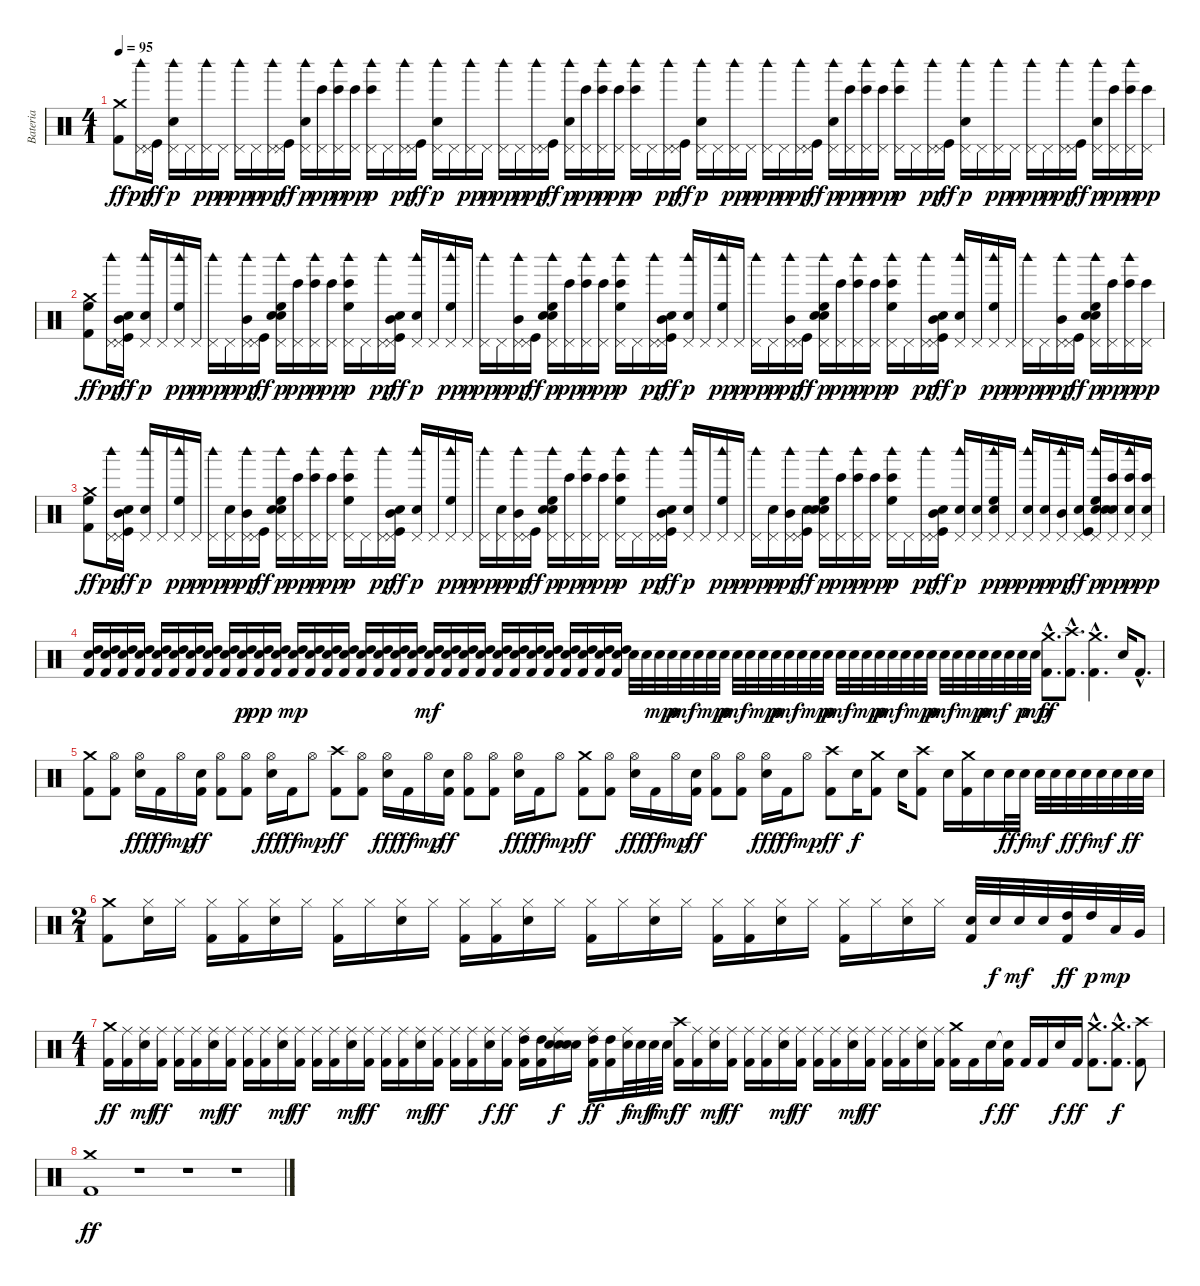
\track ("Bateria" "Bateria") {instrument percussion}
\staff {score}
\articulation defaults
\ts (4 1)
\tempo 95
\clef neutral
\ks c
("Crash medium (hit)" "Kick (hit) 2").8{dy ff} ("Pedal Hi-Hat (hit)" "Woodblock high (hit)").16{dy pp} ("Pedal Hi-Hat (hit)" "Kick (hit)").16{dy ff} ("Pedal Hi-Hat (hit)" "Woodblock high (hit)" "Hand Clap (hit)").16{dy p} "Pedal Hi-Hat (hit)".16 ("Pedal Hi-Hat (hit)" "Woodblock high (hit)").16{dy pp} "Pedal Hi-Hat (hit)".16{dy p} ("Pedal Hi-Hat (hit)" "Woodblock high (hit)").16{dy pp} "Pedal Hi-Hat (hit)".16{dy p} ("Pedal Hi-Hat (hit)" "Woodblock high (hit)").16{dy pp} ("Pedal Hi-Hat (hit)" "Kick (hit)").16{dy ff} ("Pedal Hi-Hat (hit)" "Woodblock high (hit)" "Hand Clap (hit)").16{dy p} ("Pedal Hi-Hat (hit)" "Bongo High (hit)").16{dy pp} ("Pedal Hi-Hat (hit)" "Woodblock high (hit)" "Bongo High (hit)").16{dy p} ("Pedal Hi-Hat (hit)" "Bongo High (hit)").16{dy pp} ("Pedal Hi-Hat (hit)" "Woodblock high (hit)" "Bongo High (hit)").16{dy p} "Pedal Hi-Hat (hit)".16 ("Pedal Hi-Hat (hit)" "Woodblock high (hit)").16{dy pp} ("Pedal Hi-Hat (hit)" "Kick (hit)").16{dy ff} ("Pedal Hi-Hat (hit)" "Woodblock high (hit)" "Hand Clap (hit)").16{dy p} "Pedal Hi-Hat (hit)".16 ("Pedal Hi-Hat (hit)" "Woodblock high (hit)").16{dy pp} "Pedal Hi-Hat (hit)".16{dy p} ("Pedal Hi-Hat (hit)" "Woodblock high (hit)").16{dy pp} "Pedal Hi-Hat (hit)".16{dy p} ("Pedal Hi-Hat (hit)" "Woodblock high (hit)").16{dy pp} ("Pedal Hi-Hat (hit)" "Kick (hit)").16{dy ff} ("Pedal Hi-Hat (hit)" "Woodblock high (hit)" "Hand Clap (hit)").16{dy p} ("Pedal Hi-Hat (hit)" "Bongo High (hit)").16{dy pp} ("Pedal Hi-Hat (hit)" "Woodblock high (hit)" "Bongo High (hit)").16{dy p} ("Pedal Hi-Hat (hit)" "Bongo High (hit)").16{dy pp} ("Pedal Hi-Hat (hit)" "Woodblock high (hit)" "Bongo High (hit)").16{dy p} "Pedal Hi-Hat (hit)".16 ("Pedal Hi-Hat (hit)" "Woodblock high (hit)").16{dy pp} ("Pedal Hi-Hat (hit)" "Kick (hit)").16{dy ff} ("Pedal Hi-Hat (hit)" "Woodblock high (hit)" "Hand Clap (hit)").16{dy p} "Pedal Hi-Hat (hit)".16 ("Pedal Hi-Hat (hit)" "Woodblock high (hit)").16{dy pp} "Pedal Hi-Hat (hit)".16{dy p} ("Pedal Hi-Hat (hit)" "Woodblock high (hit)").16{dy pp} "Pedal Hi-Hat (hit)".16{dy p} ("Pedal Hi-Hat (hit)" "Woodblock high (hit)").16{dy pp} ("Pedal Hi-Hat (hit)" "Kick (hit)").16{dy ff} ("Pedal Hi-Hat (hit)" "Woodblock high (hit)" "Hand Clap (hit)").16{dy p} ("Pedal Hi-Hat (hit)" "Bongo High (hit)").16{dy pp} ("Pedal Hi-Hat (hit)" "Woodblock high (hit)" "Bongo High (hit)").16{dy p} ("Pedal Hi-Hat (hit)" "Bongo High (hit)").16{dy pp} ("Pedal Hi-Hat (hit)" "Woodblock high (hit)" "Bongo High (hit)").16{dy p} "Pedal Hi-Hat (hit)".16 ("Pedal Hi-Hat (hit)" "Woodblock high (hit)").16{dy pp} ("Pedal Hi-Hat (hit)" "Kick (hit)").16{dy ff} ("Pedal Hi-Hat (hit)" "Woodblock high (hit)" "Hand Clap (hit)").16{dy p} "Pedal Hi-Hat (hit)".16 ("Pedal Hi-Hat (hit)" "Woodblock high (hit)").16{dy pp} "Pedal Hi-Hat (hit)".16{dy p} ("Pedal Hi-Hat (hit)" "Woodblock high (hit)").16{dy pp} "Pedal Hi-Hat (hit)".16{dy p} ("Pedal Hi-Hat (hit)" "Woodblock high (hit)").16{dy pp} ("Pedal Hi-Hat (hit)" "Kick (hit)").16{dy ff} ("Pedal Hi-Hat (hit)" "Woodblock high (hit)" "Hand Clap (hit)").16{dy p} ("Pedal Hi-Hat (hit)" "Bongo High (hit)").16{dy pp} ("Pedal Hi-Hat (hit)" "Woodblock high (hit)" "Bongo High (hit)").16{dy p} ("Pedal Hi-Hat (hit)" "Bongo High (hit)").16{dy pp} |
("Crash medium (hit)" "High Floor Tom (hit)" "Kick (hit) 2").8{dy ff} ("Pedal Hi-Hat (hit)" "Woodblock high (hit)").16{dy pp} ("Snare (hit) 2" "Pedal Hi-Hat (hit)" "Mid Tom (hit)" "Kick (hit)").16{dy ff} ("Pedal Hi-Hat (hit)" "Woodblock high (hit)" "Hand Clap (hit)").16{dy p} "Pedal Hi-Hat (hit)".16 ("Pedal Hi-Hat (hit)" "High Floor Tom (hit)" "Woodblock high (hit)").16{dy pp} "Pedal Hi-Hat (hit)".16{dy p} ("Pedal Hi-Hat (hit)" "Woodblock high (hit)").16{dy pp} "Pedal Hi-Hat (hit)".16{dy p} ("Pedal Hi-Hat (hit)" "Mid Tom (hit)" "Woodblock high (hit)").16{dy pp} ("Pedal Hi-Hat (hit)" "Kick (hit)").16{dy ff} ("Snare (hit) 2" "Pedal Hi-Hat (hit)" "High Floor Tom (hit)" "Woodblock high (hit)" "Hand Clap (hit)").16{dy p} ("Pedal Hi-Hat (hit)" "Bongo High (hit)").16{dy pp} ("Pedal Hi-Hat (hit)" "Woodblock high (hit)" "Bongo High (hit)").16{dy p} ("Pedal Hi-Hat (hit)" "Bongo High (hit)").16{dy pp} ("Pedal Hi-Hat (hit)" "High Floor Tom (hit)" "Woodblock high (hit)" "Bongo High (hit)").16{dy p} "Pedal Hi-Hat (hit)".16 ("Pedal Hi-Hat (hit)" "Woodblock high (hit)").16{dy pp} ("Snare (hit) 2" "Pedal Hi-Hat (hit)" "Mid Tom (hit)" "Kick (hit)").16{dy ff} ("Pedal Hi-Hat (hit)" "Woodblock high (hit)" "Hand Clap (hit)").16{dy p} "Pedal Hi-Hat (hit)".16 ("Pedal Hi-Hat (hit)" "High Floor Tom (hit)" "Woodblock high (hit)").16{dy pp} "Pedal Hi-Hat (hit)".16{dy p} ("Pedal Hi-Hat (hit)" "Woodblock high (hit)").16{dy pp} "Pedal Hi-Hat (hit)".16{dy p} ("Pedal Hi-Hat (hit)" "Mid Tom (hit)" "Woodblock high (hit)").16{dy pp} ("Pedal Hi-Hat (hit)" "Kick (hit)").16{dy ff} ("Snare (hit) 2" "Pedal Hi-Hat (hit)" "High Floor Tom (hit)" "Woodblock high (hit)" "Hand Clap (hit)").16{dy p} ("Pedal Hi-Hat (hit)" "Bongo High (hit)").16{dy pp} ("Pedal Hi-Hat (hit)" "Woodblock high (hit)" "Bongo High (hit)").16{dy p} ("Pedal Hi-Hat (hit)" "Bongo High (hit)").16{dy pp} ("Pedal Hi-Hat (hit)" "High Floor Tom (hit)" "Woodblock high (hit)" "Bongo High (hit)").16{dy p} "Pedal Hi-Hat (hit)".16 ("Pedal Hi-Hat (hit)" "Woodblock high (hit)").16{dy pp} ("Snare (hit) 2" "Pedal Hi-Hat (hit)" "Mid Tom (hit)" "Kick (hit)").16{dy ff} ("Pedal Hi-Hat (hit)" "Woodblock high (hit)" "Hand Clap (hit)").16{dy p} "Pedal Hi-Hat (hit)".16 ("Pedal Hi-Hat (hit)" "High Floor Tom (hit)" "Woodblock high (hit)").16{dy pp} "Pedal Hi-Hat (hit)".16{dy p} ("Pedal Hi-Hat (hit)" "Woodblock high (hit)").16{dy pp} "Pedal Hi-Hat (hit)".16{dy p} ("Pedal Hi-Hat (hit)" "Mid Tom (hit)" "Woodblock high (hit)").16{dy pp} ("Pedal Hi-Hat (hit)" "Kick (hit)").16{dy ff} ("Snare (hit) 2" "Pedal Hi-Hat (hit)" "High Floor Tom (hit)" "Woodblock high (hit)" "Hand Clap (hit)").16{dy p} ("Pedal Hi-Hat (hit)" "Bongo High (hit)").16{dy pp} ("Pedal Hi-Hat (hit)" "Woodblock high (hit)" "Bongo High (hit)").16{dy p} ("Pedal Hi-Hat (hit)" "Bongo High (hit)").16{dy pp} ("Pedal Hi-Hat (hit)" "High Floor Tom (hit)" "Woodblock high (hit)" "Bongo High (hit)").16{dy p} "Pedal Hi-Hat (hit)".16 ("Pedal Hi-Hat (hit)" "Woodblock high (hit)").16{dy pp} ("Snare (hit) 2" "Pedal Hi-Hat (hit)" "Mid Tom (hit)" "Kick (hit)").16{dy ff} ("Pedal Hi-Hat (hit)" "Woodblock high (hit)" "Hand Clap (hit)").16{dy p} "Pedal Hi-Hat (hit)".16 ("Pedal Hi-Hat (hit)" "High Floor Tom (hit)" "Woodblock high (hit)").16{dy pp} "Pedal Hi-Hat (hit)".16{dy p} ("Pedal Hi-Hat (hit)" "Woodblock high (hit)").16{dy pp} "Pedal Hi-Hat (hit)".16{dy p} ("Pedal Hi-Hat (hit)" "Mid Tom (hit)" "Woodblock high (hit)").16{dy pp} ("Pedal Hi-Hat (hit)" "Kick (hit)").16{dy ff} ("Snare (hit) 2" "Pedal Hi-Hat (hit)" "High Floor Tom (hit)" "Woodblock high (hit)" "Hand Clap (hit)").16{dy p} ("Pedal Hi-Hat (hit)" "Bongo High (hit)").16{dy pp} ("Pedal Hi-Hat (hit)" "Woodblock high (hit)" "Bongo High (hit)").16{dy p} ("Pedal Hi-Hat (hit)" "Bongo High (hit)").16{dy pp} |
("Crash medium (hit)" "High Floor Tom (hit)" "Kick (hit) 2").8{dy ff} ("Pedal Hi-Hat (hit)" "Woodblock high (hit)").16{dy pp} ("Snare (hit) 2" "Pedal Hi-Hat (hit)" "Mid Tom (hit)" "Kick (hit)").16{dy ff} ("Pedal Hi-Hat (hit)" "Woodblock high (hit)" "Hand Clap (hit)").16{dy p} "Pedal Hi-Hat (hit)".16 ("Pedal Hi-Hat (hit)" "High Floor Tom (hit)" "Woodblock high (hit)").16{dy pp} "Pedal Hi-Hat (hit)".16{dy p} ("Pedal Hi-Hat (hit)" "Woodblock high (hit)").16{dy pp} ("Snare (hit) 2" "Pedal Hi-Hat (hit)").16{dy p} ("Pedal Hi-Hat (hit)" "Mid Tom (hit)" "Woodblock high (hit)").16{dy pp} ("Pedal Hi-Hat (hit)" "Kick (hit)").16{dy ff} ("Snare (hit) 2" "Pedal Hi-Hat (hit)" "High Floor Tom (hit)" "Woodblock high (hit)" "Hand Clap (hit)").16{dy p} ("Pedal Hi-Hat (hit)" "Bongo High (hit)").16{dy pp} ("Pedal Hi-Hat (hit)" "Woodblock high (hit)" "Bongo High (hit)").16{dy p} ("Pedal Hi-Hat (hit)" "Bongo High (hit)").16{dy pp} ("Pedal Hi-Hat (hit)" "High Floor Tom (hit)" "Woodblock high (hit)" "Bongo High (hit)").16{dy p} "Pedal Hi-Hat (hit)".16 ("Pedal Hi-Hat (hit)" "Woodblock high (hit)").16{dy pp} ("Snare (hit) 2" "Pedal Hi-Hat (hit)" "Mid Tom (hit)" "Kick (hit)").16{dy ff} ("Pedal Hi-Hat (hit)" "Woodblock high (hit)" "Hand Clap (hit)").16{dy p} "Pedal Hi-Hat (hit)".16 ("Pedal Hi-Hat (hit)" "High Floor Tom (hit)" "Woodblock high (hit)").16{dy pp} "Pedal Hi-Hat (hit)".16{dy p} ("Pedal Hi-Hat (hit)" "Woodblock high (hit)").16{dy pp} ("Snare (hit) 2" "Pedal Hi-Hat (hit)").16{dy p} ("Pedal Hi-Hat (hit)" "Mid Tom (hit)" "Woodblock high (hit)").16{dy pp} ("Pedal Hi-Hat (hit)" "Kick (hit)").16{dy ff} ("Snare (hit) 2" "Pedal Hi-Hat (hit)" "High Floor Tom (hit)" "Woodblock high (hit)" "Hand Clap (hit)").16{dy p} ("Pedal Hi-Hat (hit)" "Bongo High (hit)").16{dy pp} ("Pedal Hi-Hat (hit)" "Woodblock high (hit)" "Bongo High (hit)").16{dy p} ("Pedal Hi-Hat (hit)" "Bongo High (hit)").16{dy pp} ("Pedal Hi-Hat (hit)" "High Floor Tom (hit)" "Woodblock high (hit)" "Bongo High (hit)").16{dy p} "Pedal Hi-Hat (hit)".16 ("Pedal Hi-Hat (hit)" "Woodblock high (hit)").16{dy pp} ("Snare (hit) 2" "Pedal Hi-Hat (hit)" "Mid Tom (hit)" "Kick (hit)").16{dy ff} ("Pedal Hi-Hat (hit)" "Woodblock high (hit)" "Hand Clap (hit)").16{dy p} "Pedal Hi-Hat (hit)".16 ("Pedal Hi-Hat (hit)" "High Floor Tom (hit)" "Woodblock high (hit)").16{dy pp} "Pedal Hi-Hat (hit)".16{dy p} ("Pedal Hi-Hat (hit)" "Woodblock high (hit)").16{dy pp} ("Snare (hit) 2" "Pedal Hi-Hat (hit)").16{dy p} ("Pedal Hi-Hat (hit)" "Mid Tom (hit)" "Woodblock high (hit)").16{dy pp} ("Snare (hit) 2" "Pedal Hi-Hat (hit)" "Kick (hit)").16{dy ff} ("Snare (hit) 2" "Pedal Hi-Hat (hit)" "High Floor Tom (hit)" "Woodblock high (hit)" "Hand Clap (hit)").16{dy p} ("Pedal Hi-Hat (hit)" "Bongo High (hit)").16{dy pp} ("Pedal Hi-Hat (hit)" "Woodblock high (hit)" "Bongo High (hit)").16{dy p} ("Pedal Hi-Hat (hit)" "Bongo High (hit)").16{dy pp} ("Pedal Hi-Hat (hit)" "High Floor Tom (hit)" "Woodblock high (hit)" "Bongo High (hit)").16{dy p} "Pedal Hi-Hat (hit)".16 ("Pedal Hi-Hat (hit)" "Woodblock high (hit)").16{dy pp} ("Snare (hit) 2" "Pedal Hi-Hat (hit)" "Mid Tom (hit)" "Kick (hit)").16{dy ff} ("Pedal Hi-Hat (hit)" "Woodblock high (hit)" "Hand Clap (hit)").16{dy p} ("Snare (hit) 2" "Pedal Hi-Hat (hit)").16 ("Snare (hit) 2" "Pedal Hi-Hat (hit)" "High Floor Tom (hit)" "Woodblock high (hit)").16{dy pp} "Pedal Hi-Hat (hit)".16{dy p} ("Snare (hit) 2" "Pedal Hi-Hat (hit)" "Woodblock high (hit)").16{dy pp} ("Snare (hit) 2" "Pedal Hi-Hat (hit)").16{dy p} ("Pedal Hi-Hat (hit)" "Mid Tom (hit)" "Woodblock high (hit)").16{dy pp} ("Snare (hit) 2" "Pedal Hi-Hat (hit)" "Kick (hit)").16{dy ff} ("Snare (hit) 2" "Pedal Hi-Hat (hit)" "High Floor Tom (hit)" "Woodblock high (hit)" "Hand Clap (hit)").16{dy p} ("Snare (hit) 2" "Pedal Hi-Hat (hit)" "Bongo High (hit)").16{dy pp} ("Snare (hit) 2" "Pedal Hi-Hat (hit)" "Woodblock high (hit)" "Bongo High (hit)").16{dy p} ("Snare (hit) 2" "Pedal Hi-Hat (hit)" "Bongo High (hit)").16{dy pp} |
("High Tom (hit)" "Electric Snare (hit)" "Kick (hit) 2").16 ("High Tom (hit)" "Electric Snare (hit)" "Kick (hit) 2").16 ("High Tom (hit)" "Electric Snare (hit)" "Kick (hit) 2").16 ("High Tom (hit)" "Electric Snare (hit)" "Kick (hit) 2").16 ("High Tom (hit)" "Electric Snare (hit)" "Kick (hit) 2").16 ("High Tom (hit)" "Electric Snare (hit)" "Kick (hit) 2").16 ("High Tom (hit)" "Electric Snare (hit)" "Kick (hit) 2").16 ("High Tom (hit)" "Electric Snare (hit)" "Kick (hit) 2").16 ("High Tom (hit)" "Electric Snare (hit)" "Kick (hit) 2").16 ("High Tom (hit)" "Electric Snare (hit)" "Kick (hit) 2").16{dy p} ("High Tom (hit)" "Electric Snare (hit)" "Kick (hit) 2").16{dy pp} ("High Tom (hit)" "Electric Snare (hit)" "Kick (hit) 2").16 ("High Tom (hit)" "Electric Snare (hit)" "Kick (hit) 2").16{dy mp} ("High Tom (hit)" "Electric Snare (hit)" "Kick (hit) 2").16 ("High Tom (hit)" "Electric Snare (hit)" "Kick (hit) 2").16 ("High Tom (hit)" "Electric Snare (hit)" "Kick (hit) 2").16 ("High Tom (hit)" "Electric Snare (hit)" "Kick (hit) 2").16 ("High Tom (hit)" "Electric Snare (hit)" "Kick (hit) 2").16 ("High Tom (hit)" "Electric Snare (hit)" "Kick (hit) 2").16 ("High Tom (hit)" "Electric Snare (hit)" "Kick (hit) 2").16 ("High Tom (hit)" "Electric Snare (hit)" "Kick (hit) 2").16{dy mf} ("High Tom (hit)" "Electric Snare (hit)" "Kick (hit) 2").16 ("High Tom (hit)" "Electric Snare (hit)" "Kick (hit) 2").16 ("High Tom (hit)" "Electric Snare (hit)" "Kick (hit) 2").16 ("High Tom (hit)" "Electric Snare (hit)" "Kick (hit) 2").16 ("High Tom (hit)" "Electric Snare (hit)" "Kick (hit) 2").16 ("High Tom (hit)" "Electric Snare (hit)" "Kick (hit) 2").16 ("High Tom (hit)" "Electric Snare (hit)" "Kick (hit) 2").16 ("High Tom (hit)" "Electric Snare (hit)" "Kick (hit) 2").16 ("High Tom (hit)" "Electric Snare (hit)" "Kick (hit) 2").16 ("High Tom (hit)" "Electric Snare (hit)" "Kick (hit) 2").16 ("High Tom (hit)" "Electric Snare (hit)" "Kick (hit) 2").16 "Electric Snare (hit)".32 "Electric Snare (hit)".32 "Electric Snare (hit)".32{dy mp} "Electric Snare (hit)".32{dy p} "Electric Snare (hit)".32{dy mf} "Electric Snare (hit)".32 "Electric Snare (hit)".32{dy mp} "Electric Snare (hit)".32{dy p} "Electric Snare (hit)".32{dy mf} "Electric Snare (hit)".32 "Electric Snare (hit)".32{dy mp} "Electric Snare (hit)".32{dy p} "Electric Snare (hit)".32{dy mf} "Electric Snare (hit)".32 "Electric Snare (hit)".32{dy mp} "Electric Snare (hit)".32{dy p} "Electric Snare (hit)".32{dy mf} "Electric Snare (hit)".32 "Electric Snare (hit)".32{dy mp} "Electric Snare (hit)".32{dy p} "Electric Snare (hit)".32{dy mf} "Electric Snare (hit)".32 "Electric Snare (hit)".32{dy mp} "Electric Snare (hit)".32{dy p} "Electric Snare (hit)".32{dy mf} "Electric Snare (hit)".32 "Electric Snare (hit)".32{dy mp} "Electric Snare (hit)".32{dy p} "Electric Snare (hit)".32{dy mf} "Electric Snare (hit)".32 "Electric Snare (hit)".32{dy p} "Electric Snare (hit)".32{dy mp} ("Crash medium (hit)"{hac} "Kick (hit) 2"{hac}).8{d dy ff} ("Crash high (hit)"{hac} "Kick (hit) 2"{hac}).8{d} ("Crash medium (hit)"{hac} "Kick (hit) 2"{hac}).4{d} "Electric Snare (hit)".16 "Kick (hit) 2"{hac}.8{d} |
("Crash medium (hit)" "Kick (hit) 2").8 ("Hi-Hat (open)" "Kick (hit) 2").8 ("Hi-Hat (open)" "Electric Snare (hit)").16{dy fff} "Kick (hit) 2".16{dy ff} "Hi-Hat (open)".16{dy mp} ("Electric Snare (hit)" "Kick (hit) 2").16{dy ff} ("Hi-Hat (open)" "Kick (hit) 2").8 ("Hi-Hat (open)" "Kick (hit) 2").8 ("Hi-Hat (open)" "Electric Snare (hit)").16{dy fff} "Kick (hit) 2".16{dy ff} "Hi-Hat (open)".8{dy mp} ("Crash high (hit)" "Kick (hit) 2").8{dy ff} ("Hi-Hat (open)" "Kick (hit) 2").8 ("Hi-Hat (open)" "Electric Snare (hit)").16{dy fff} "Kick (hit) 2".16{dy ff} "Hi-Hat (open)".16{dy mp} ("Electric Snare (hit)" "Kick (hit) 2").16{dy ff} ("Hi-Hat (open)" "Kick (hit) 2").8 ("Hi-Hat (open)" "Kick (hit) 2").8 ("Hi-Hat (open)" "Electric Snare (hit)").16{dy fff} "Kick (hit) 2".16{dy ff} "Hi-Hat (open)".8{dy mp} ("Crash medium (hit)" "Kick (hit) 2").8{dy ff} ("Hi-Hat (open)" "Kick (hit) 2").8 ("Hi-Hat (open)" "Electric Snare (hit)").16{dy fff} "Kick (hit) 2".16{dy ff} "Hi-Hat (open)".16{dy mp} ("Electric Snare (hit)" "Kick (hit) 2").16{dy ff} ("Hi-Hat (open)" "Kick (hit) 2").8 ("Hi-Hat (open)" "Kick (hit) 2").8 ("Hi-Hat (open)" "Electric Snare (hit)").16{dy fff} "Kick (hit) 2".16{dy ff} "Hi-Hat (open)".8{dy mp} ("Crash high (hit)" "Kick (hit) 2").8{dy ff} "Electric Snare (hit)".16{dy f} ("Crash medium (hit)" "Kick (hit) 2").8 "Electric Snare (hit)".16 ("Crash high (hit)" "Kick (hit) 2").8 "Electric Snare (hit)".16 ("Crash medium (hit)" "Kick (hit) 2").16 "Electric Snare (hit)".16 "Electric Snare (hit)".32{dy ff} "Electric Snare (hit)".32{dy f} "Electric Snare (hit)".32{dy mf} "Electric Snare (hit)".32 "Electric Snare (hit)".32{dy ff} "Electric Snare (hit)".32{dy f} "Electric Snare (hit)".32{dy mf} "Electric Snare (hit)".32 "Electric Snare (hit)".32{dy ff} "Electric Snare (hit)".32 |
\ts (2 1)
("Crash medium (hit)" "Kick (hit) 2").8 ("Hi-Hat (closed)" "Electric Snare (hit)").16 "Hi-Hat (closed)".16 ("Hi-Hat (closed)" "Kick (hit) 2").16 ("Hi-Hat (closed)" "Kick (hit) 2").16 ("Hi-Hat (closed)" "Electric Snare (hit)").16 "Hi-Hat (closed)".16 ("Hi-Hat (closed)" "Kick (hit) 2").16 "Hi-Hat (closed)".16 ("Hi-Hat (closed)" "Electric Snare (hit)").16 "Hi-Hat (closed)".16 ("Hi-Hat (closed)" "Kick (hit) 2").16 ("Hi-Hat (closed)" "Kick (hit) 2").16 ("Hi-Hat (closed)" "Electric Snare (hit)").16 "Hi-Hat (closed)".16 ("Hi-Hat (closed)" "Kick (hit) 2").16 "Hi-Hat (closed)".16 ("Hi-Hat (closed)" "Electric Snare (hit)").16 "Hi-Hat (closed)".16 ("Hi-Hat (closed)" "Kick (hit) 2").16 ("Hi-Hat (closed)" "Kick (hit) 2").16 ("Hi-Hat (closed)" "Electric Snare (hit)").16 "Hi-Hat (closed)".16 ("Hi-Hat (closed)" "Kick (hit) 2").16 "Hi-Hat (closed)".16 ("Hi-Hat (closed)" "Electric Snare (hit)").16 "Hi-Hat (closed)".16 ("Electric Snare (hit)" "Kick (hit) 2").32 "Electric Snare (hit)".32{dy f} "Electric Snare (hit)".32{dy mf} "Electric Snare (hit)".32 ("High Tom (hit)" "Kick (hit) 2").32{dy ff} "High Tom (hit)".32{dy p} "Low Tom (hit)".32{dy mp} "Very Low Tom (hit)".32 |
\ts (4 1)
("Crash medium (hit)" "Kick (hit) 2").16{dy ff} ("Ride (middle)" "Kick (hit) 2").16 ("Ride (middle)" "Electric Snare (hit)").16{dy mf} ("Ride (middle)" "Kick (hit) 2").16{dy ff} ("Ride (middle)" "Kick (hit) 2").16 ("Ride (middle)" "Kick (hit) 2").16 ("Ride (middle)" "Electric Snare (hit)").16{dy mf} ("Ride (middle)" "Kick (hit) 2").16{dy ff} ("Ride (middle)" "Kick (hit) 2").16 ("Ride (middle)" "Kick (hit) 2").16 ("Ride (middle)" "Electric Snare (hit)").16{dy mf} ("Ride (middle)" "Kick (hit) 2").16{dy ff} ("Ride (middle)" "Kick (hit) 2").16 ("Ride (middle)" "Kick (hit) 2").16 ("Ride (middle)" "Electric Snare (hit)").16{dy mf} ("Ride (middle)" "Kick (hit) 2").16{dy ff} ("Ride (middle)" "Kick (hit) 2").16 ("Ride (middle)" "Kick (hit) 2").16 ("Ride (middle)" "Electric Snare (hit)").16{dy mf} ("Ride (middle)" "Kick (hit) 2").16{dy ff} ("Ride (middle)" "Kick (hit) 2").16 ("Ride (middle)" "Kick (hit) 2").16 ("Ride (middle)" "Electric Snare (hit)").16{dy f} ("Ride (middle)" "Kick (hit) 2").16{dy ff} ("Ride (middle)" "High Tom (hit)" "Kick (hit) 2").16 ("High Tom (hit)" "Kick (hit) 2").16 ("Ride (middle)" "Snare (hit) 2" "Electric Snare (hit)").16{dy f} ("Snare (hit) 2" "Electric Snare (hit)").16 ("Ride (middle)" "High Tom (hit)" "Kick (hit) 2").16{dy ff} ("High Tom (hit)" "Kick (hit) 2").16 ("Ride (middle)" "Electric Snare (hit)").32{dy f} "Electric Snare (hit)".32{dy mf} "Electric Snare (hit)".32{dy f} "Electric Snare (hit)".32{dy mf} ("Crash high (hit)" "Kick (hit) 2").16{dy ff} ("Ride (middle)" "Kick (hit) 2").16 ("Ride (middle)" "Electric Snare (hit)").16{dy mf} ("Ride (middle)" "Kick (hit) 2").16{dy ff} ("Ride (middle)" "Kick (hit) 2").16 ("Ride (middle)" "Kick (hit) 2").16 ("Ride (middle)" "Electric Snare (hit)").16{dy mf} ("Ride (middle)" "Kick (hit) 2").16{dy ff} ("Ride (middle)" "Kick (hit) 2").16 ("Ride (middle)" "Kick (hit) 2").16 ("Ride (middle)" "Electric Snare (hit)").16{dy mf} ("Ride (middle)" "Kick (hit) 2").16{dy ff} ("Ride (middle)" "Kick (hit) 2").16 ("Ride (middle)" "Kick (hit) 2").16 ("Ride (middle)" "Electric Snare (hit)").16 ("Ride (middle)" "Kick (hit) 2").16 ("Crash medium (hit)" "Kick (hit) 2").16 "Kick (hit) 2".16 "Electric Snare (hit)".16{dy f} ("Snare (hit)"{t} "Kick (hit) 2").16{dy ff} "Kick (hit) 2".16 "Kick (hit) 2".16 "Electric Snare (hit)".16{dy f} "Kick (hit) 2".16{dy ff} ("Crash medium (hit)"{hac} "Kick (hit) 2"{hac}).8{d} ("Crash medium (hit)"{hac} "Kick (hit) 2"{hac}).8{d dy f} ("Crash high (hit)" "Kick (hit) 2").8 |
("Crash medium (hit)" "Kick (hit) 2").1{dy ff} r.1 r.1 r.1
